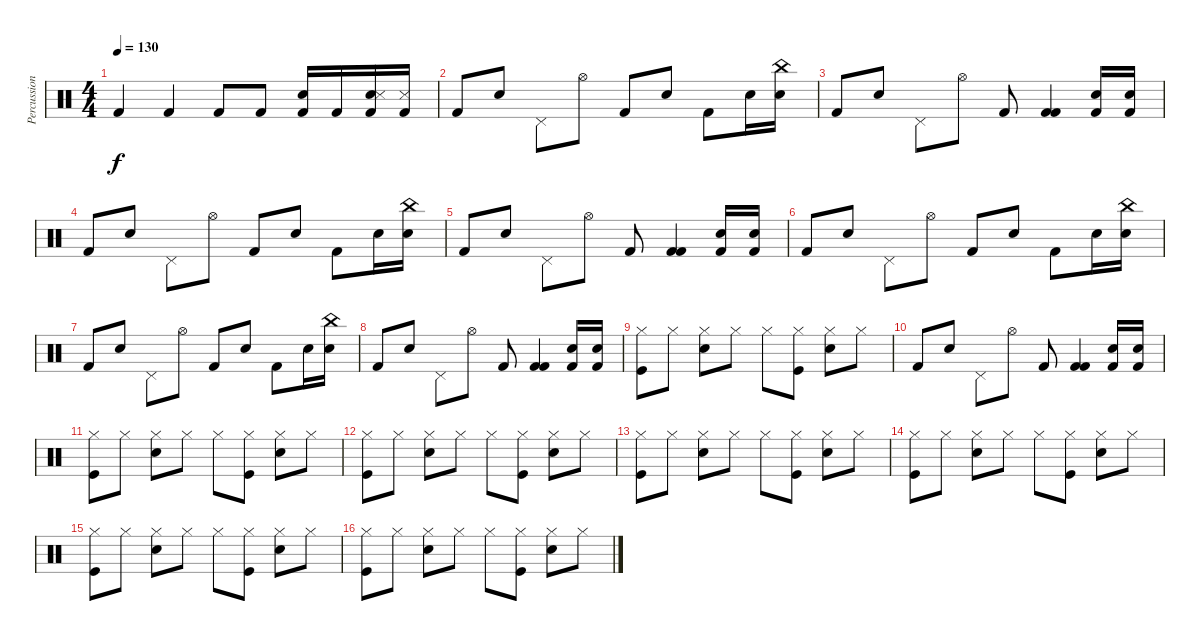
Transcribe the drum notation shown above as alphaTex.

\track ("Percussions" "Percussion") {instrument percussion}
\staff {score}
\articulation defaults
\ts (4 4)
\tempo 130
\clef neutral
\ks c "Kick (hit) 2".4{dy f} "Kick (hit) 2".4 "Kick (hit) 2".8 "Kick (hit) 2".8
("Kick (hit) 2" "Electric Snare (hit)").16 "Kick (hit) 2".16 ("Kick (hit) 2" "Electric Snare (hit)" "Snare (side stick) 3").16 ("Kick (hit) 2" "Snare (side stick) 3").16 |
"Kick (hit) 2".8 "Electric Snare (hit)".8 "Pedal Hi-Hat (hit)".8 "Hi-Hat (open)".8 "Kick (hit) 2".8 "Electric Snare (hit)".8 "Kick (hit) 2".8 "Electric Snare (hit)".16 ("Electric Snare (hit)" "China (hit)").16 |
"Kick (hit) 2".8 "Electric Snare (hit)".8 "Pedal Hi-Hat (hit)".8 "Hi-Hat (open)".8 "Kick (hit) 2".8 ("Kick (hit) 2" "Kick (hit) 2").4 ("Electric Snare (hit)" "Kick (hit) 2").16 ("Electric Snare (hit)" "Kick (hit) 2").16 |
"Kick (hit) 2".8 "Electric Snare (hit)".8 "Pedal Hi-Hat (hit)".8 "Hi-Hat (open)".8 "Kick (hit) 2".8 "Electric Snare (hit)".8 "Kick (hit) 2".8 "Electric Snare (hit)".16 ("Electric Snare (hit)" "China (hit)").16 |
"Kick (hit) 2".8 "Electric Snare (hit)".8 "Pedal Hi-Hat (hit)".8 "Hi-Hat (open)".8 "Kick (hit) 2".8 ("Kick (hit) 2" "Kick (hit) 2").4 ("Electric Snare (hit)" "Kick (hit) 2").16 ("Electric Snare (hit)" "Kick (hit) 2").16 |
"Kick (hit) 2".8 "Electric Snare (hit)".8 "Pedal Hi-Hat (hit)".8 "Hi-Hat (open)".8 "Kick (hit) 2".8 "Electric Snare (hit)".8 "Kick (hit) 2".8 "Electric Snare (hit)".16 ("Electric Snare (hit)" "China (hit)").16 |
"Kick (hit) 2".8 "Electric Snare (hit)".8 "Pedal Hi-Hat (hit)".8 "Hi-Hat (open)".8 "Kick (hit) 2".8 "Electric Snare (hit)".8 "Kick (hit) 2".8 "Electric Snare (hit)".16 ("Electric Snare (hit)" "China (hit)").16 |
"Kick (hit) 2".8 "Electric Snare (hit)".8 "Pedal Hi-Hat (hit)".8 "Hi-Hat (open)".8 "Kick (hit) 2".8 ("Kick (hit) 2" "Kick (hit) 2").4 ("Electric Snare (hit)" "Kick (hit) 2").16 ("Electric Snare (hit)" "Kick (hit) 2").16 |
("Hi-Hat (closed)" "Kick (hit)").8 "Hi-Hat (closed)".8 ("Hi-Hat (closed)" "Snare (hit) 2").8 "Hi-Hat (closed)".8 "Hi-Hat (closed)".8 ("Hi-Hat (closed)" "Kick (hit)").8 ("Hi-Hat (closed)" "Snare (hit) 2").8 "Hi-Hat (closed)".8 |
"Kick (hit) 2".8 "Electric Snare (hit)".8 "Pedal Hi-Hat (hit)".8 "Hi-Hat (open)".8 "Kick (hit) 2".8 ("Kick (hit) 2" "Kick (hit) 2").4 ("Electric Snare (hit)" "Kick (hit) 2").16 ("Electric Snare (hit)" "Kick (hit) 2").16 |
("Hi-Hat (closed)" "Kick (hit)").8 "Hi-Hat (closed)".8 ("Hi-Hat (closed)" "Snare (hit) 2").8 "Hi-Hat (closed)".8 "Hi-Hat (closed)".8 ("Hi-Hat (closed)" "Kick (hit)").8 ("Hi-Hat (closed)" "Snare (hit) 2").8 "Hi-Hat (closed)".8 |
("Hi-Hat (closed)" "Kick (hit)").8 "Hi-Hat (closed)".8 ("Hi-Hat (closed)" "Snare (hit) 2").8 "Hi-Hat (closed)".8 "Hi-Hat (closed)".8 ("Hi-Hat (closed)" "Kick (hit)").8 ("Hi-Hat (closed)" "Snare (hit) 2").8 "Hi-Hat (closed)".8 |
("Hi-Hat (closed)" "Kick (hit)").8 "Hi-Hat (closed)".8 ("Hi-Hat (closed)" "Snare (hit) 2").8 "Hi-Hat (closed)".8 "Hi-Hat (closed)".8 ("Hi-Hat (closed)" "Kick (hit)").8 ("Hi-Hat (closed)" "Snare (hit) 2").8 "Hi-Hat (closed)".8 |
("Hi-Hat (closed)" "Kick (hit)").8 "Hi-Hat (closed)".8 ("Hi-Hat (closed)" "Snare (hit) 2").8 "Hi-Hat (closed)".8 "Hi-Hat (closed)".8 ("Hi-Hat (closed)" "Kick (hit)").8 ("Hi-Hat (closed)" "Snare (hit) 2").8 "Hi-Hat (closed)".8 |
("Hi-Hat (closed)" "Kick (hit)").8 "Hi-Hat (closed)".8 ("Hi-Hat (closed)" "Snare (hit) 2").8 "Hi-Hat (closed)".8 "Hi-Hat (closed)".8 ("Hi-Hat (closed)" "Kick (hit)").8 ("Hi-Hat (closed)" "Snare (hit) 2").8 "Hi-Hat (closed)".8 |
("Hi-Hat (closed)" "Kick (hit)").8 "Hi-Hat (closed)".8 ("Hi-Hat (closed)" "Snare (hit) 2").8 "Hi-Hat (closed)".8 "Hi-Hat (closed)".8 ("Hi-Hat (closed)" "Kick (hit)").8 ("Hi-Hat (closed)" "Snare (hit) 2").8 "Hi-Hat (closed)".8
